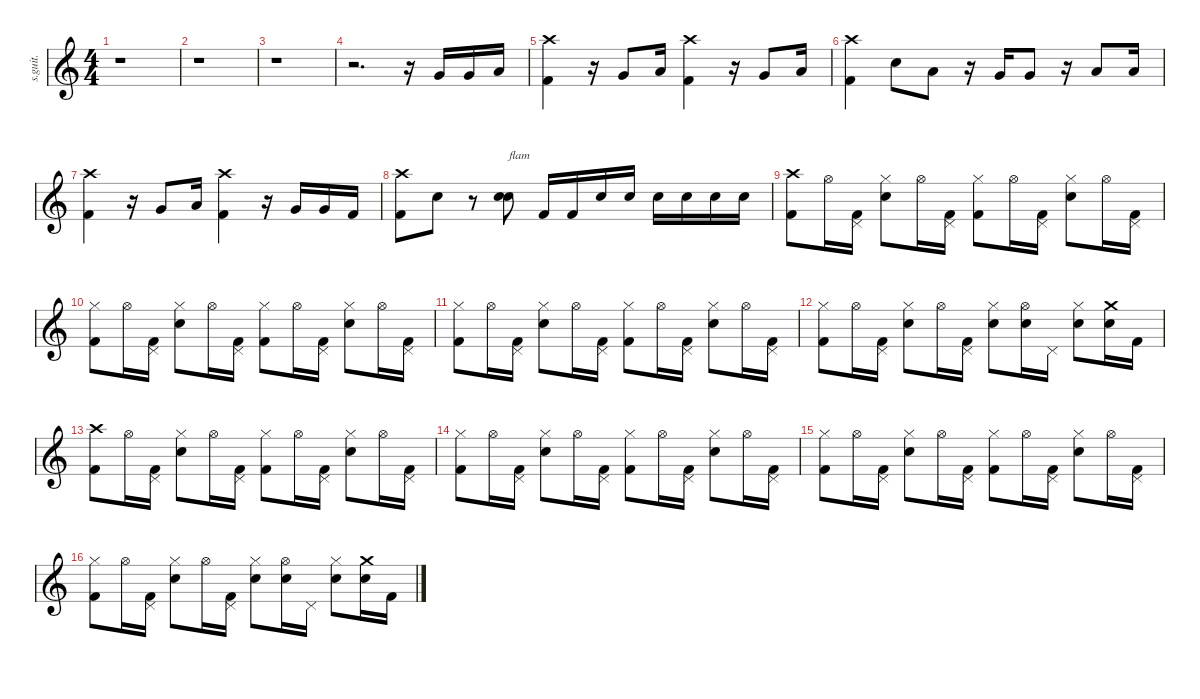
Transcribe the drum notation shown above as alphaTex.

\defaultSystemsLayout 4
\hideDynamics
\bracketExtendMode nobrackets
\track ("Bob Burns (Drums)" "s.guit.") {instrument percussion}
\staff {score}
\articulation defaults
\ts (4 4)
\beaming (8 2 2 2 2)
\tempo (60 hide)
\clef g2
\ks c
r.1{dy f} |
r.1 |
r.1 |
r.2{d} r.16 "Very Low Tom (hit)".16{lyrics (0 "") lyrics (1 "") lyrics (2 "") lyrics (3 "") lyrics (4 "")} "Very Low Tom (hit)".16{lyrics (0 "") lyrics (1 "") lyrics (2 "") lyrics (3 "") lyrics (4 "")} "Low Tom (hit)".16{lyrics (0 "") lyrics (1 "") lyrics (2 "") lyrics (3 "") lyrics (4 "")} |
("Crash high (hit)" "Kick (hit) 2").4{lyrics (0 "") lyrics (1 "") lyrics (2 "") lyrics (3 "") lyrics (4 "")} r.16 "Very Low Tom (hit)".8{lyrics (0 "") lyrics (1 "") lyrics (2 "") lyrics (3 "") lyrics (4 "")} "Low Tom (hit)".16{lyrics (0 "") lyrics (1 "") lyrics (2 "") lyrics (3 "") lyrics (4 "")} ("Crash high (hit)" "Kick (hit) 2").4{lyrics (0 "") lyrics (1 "") lyrics (2 "") lyrics (3 "") lyrics (4 "")} r.16 "Very Low Tom (hit)".8{lyrics (0 "") lyrics (1 "") lyrics (2 "") lyrics (3 "") lyrics (4 "")} "Low Tom (hit)".16{lyrics (0 "") lyrics (1 "") lyrics (2 "") lyrics (3 "") lyrics (4 "")} |
("Crash high (hit)" "Kick (hit) 2").4{lyrics (0 "") lyrics (1 "") lyrics (2 "") lyrics (3 "") lyrics (4 "")} "Electric Snare (hit)".8{lyrics (0 "") lyrics (1 "") lyrics (2 "") lyrics (3 "") lyrics (4 "")} "Low Tom (hit)".8{lyrics (0 "") lyrics (1 "") lyrics (2 "") lyrics (3 "") lyrics (4 "")} r.16 "Very Low Tom (hit)".16{lyrics (0 "") lyrics (1 "") lyrics (2 "") lyrics (3 "") lyrics (4 "")} "Very Low Tom (hit)".8{lyrics (0 "") lyrics (1 "") lyrics (2 "") lyrics (3 "") lyrics (4 "")} r.16 "Low Tom (hit)".8{lyrics (0 "") lyrics (1 "") lyrics (2 "") lyrics (3 "") lyrics (4 "")} "Low Tom (hit)".16{lyrics (0 "") lyrics (1 "") lyrics (2 "") lyrics (3 "") lyrics (4 "")} |
("Crash high (hit)" "Kick (hit) 2").4{lyrics (0 "") lyrics (1 "") lyrics (2 "") lyrics (3 "") lyrics (4 "")} r.16 "Very Low Tom (hit)".8{lyrics (0 "") lyrics (1 "") lyrics (2 "") lyrics (3 "") lyrics (4 "")} "Low Tom (hit)".16{lyrics (0 "") lyrics (1 "") lyrics (2 "") lyrics (3 "") lyrics (4 "")} ("Crash high (hit)" "Kick (hit) 2").4{lyrics (0 "") lyrics (1 "") lyrics (2 "") lyrics (3 "") lyrics (4 "")} r.16 "Very Low Tom (hit)".16{lyrics (0 "") lyrics (1 "") lyrics (2 "") lyrics (3 "") lyrics (4 "")} "Very Low Tom (hit)".16{lyrics (0 "") lyrics (1 "") lyrics (2 "") lyrics (3 "") lyrics (4 "")} "Kick (hit) 2".16{lyrics (0 "") lyrics (1 "") lyrics (2 "") lyrics (3 "") lyrics (4 "")} |
("Crash high (hit)" "Kick (hit) 2").8{lyrics (0 "") lyrics (1 "") lyrics (2 "") lyrics (3 "") lyrics (4 "")} "Electric Snare (hit)".8{lyrics (0 "") lyrics (1 "") lyrics (2 "") lyrics (3 "") lyrics (4 "")} r.8 ("Electric Snare (hit)" "Electric Snare (hit)").8{bd 30 txt "flam" lyrics (0 "") lyrics (1 "") lyrics (2 "") lyrics (3 "") lyrics (4 "")} "Kick (hit) 2".16{lyrics (0 "") lyrics (1 "") lyrics (2 "") lyrics (3 "") lyrics (4 "")} "Kick (hit) 2".16{lyrics (0 "") lyrics (1 "") lyrics (2 "") lyrics (3 "") lyrics (4 "")} "Electric Snare (hit)".16{lyrics (0 "") lyrics (1 "") lyrics (2 "") lyrics (3 "") lyrics (4 "")} "Electric Snare (hit)".16{lyrics (0 "") lyrics (1 "") lyrics (2 "") lyrics (3 "") lyrics (4 "")} "Electric Snare (hit)".16{lyrics (0 "") lyrics (1 "") lyrics (2 "") lyrics (3 "") lyrics (4 "")} "Electric Snare (hit)".16{lyrics (0 "") lyrics (1 "") lyrics (2 "") lyrics (3 "") lyrics (4 "")} "Electric Snare (hit)".16{lyrics (0 "") lyrics (1 "") lyrics (2 "") lyrics (3 "") lyrics (4 "")} "Electric Snare (hit)".16{lyrics (0 "") lyrics (1 "") lyrics (2 "") lyrics (3 "") lyrics (4 "")} |
("Crash high (hit)" "Kick (hit) 2").8{lyrics (0 "") lyrics (1 "") lyrics (2 "") lyrics (3 "") lyrics (4 "")} "Hi-Hat (open)".16{lyrics (0 "") lyrics (1 "") lyrics (2 "") lyrics (3 "") lyrics (4 "")} ("Pedal Hi-Hat (hit)" "Kick (hit) 2").16{lyrics (0 "") lyrics (1 "") lyrics (2 "") lyrics (3 "") lyrics (4 "")} ("Hi-Hat (closed)" "Electric Snare (hit)").8{lyrics (0 "") lyrics (1 "") lyrics (2 "") lyrics (3 "") lyrics (4 "")} "Hi-Hat (open)".16{lyrics (0 "") lyrics (1 "") lyrics (2 "") lyrics (3 "") lyrics (4 "")} ("Pedal Hi-Hat (hit)" "Kick (hit) 2").16{lyrics (0 "") lyrics (1 "") lyrics (2 "") lyrics (3 "") lyrics (4 "")} ("Hi-Hat (closed)" "Kick (hit) 2").8{lyrics (0 "") lyrics (1 "") lyrics (2 "") lyrics (3 "") lyrics (4 "")} "Hi-Hat (open)".16{lyrics (0 "") lyrics (1 "") lyrics (2 "") lyrics (3 "") lyrics (4 "")} ("Pedal Hi-Hat (hit)" "Kick (hit) 2").16{lyrics (0 "") lyrics (1 "") lyrics (2 "") lyrics (3 "") lyrics (4 "")} ("Hi-Hat (closed)" "Electric Snare (hit)").8{lyrics (0 "") lyrics (1 "") lyrics (2 "") lyrics (3 "") lyrics (4 "")} "Hi-Hat (open)".16{lyrics (0 "") lyrics (1 "") lyrics (2 "") lyrics (3 "") lyrics (4 "")} ("Pedal Hi-Hat (hit)" "Kick (hit) 2").16{lyrics (0 "") lyrics (1 "") lyrics (2 "") lyrics (3 "") lyrics (4 "")} |
("Hi-Hat (closed)" "Kick (hit) 2").8{lyrics (0 "") lyrics (1 "") lyrics (2 "") lyrics (3 "") lyrics (4 "")} "Hi-Hat (open)".16{lyrics (0 "") lyrics (1 "") lyrics (2 "") lyrics (3 "") lyrics (4 "")} ("Pedal Hi-Hat (hit)" "Kick (hit) 2").16{lyrics (0 "") lyrics (1 "") lyrics (2 "") lyrics (3 "") lyrics (4 "")} ("Hi-Hat (closed)" "Electric Snare (hit)").8{lyrics (0 "") lyrics (1 "") lyrics (2 "") lyrics (3 "") lyrics (4 "")} "Hi-Hat (open)".16{lyrics (0 "") lyrics (1 "") lyrics (2 "") lyrics (3 "") lyrics (4 "")} ("Pedal Hi-Hat (hit)" "Kick (hit) 2").16{lyrics (0 "") lyrics (1 "") lyrics (2 "") lyrics (3 "") lyrics (4 "")} ("Hi-Hat (closed)" "Kick (hit) 2").8{lyrics (0 "") lyrics (1 "") lyrics (2 "") lyrics (3 "") lyrics (4 "")} "Hi-Hat (open)".16{lyrics (0 "") lyrics (1 "") lyrics (2 "") lyrics (3 "") lyrics (4 "")} ("Pedal Hi-Hat (hit)" "Kick (hit) 2").16{lyrics (0 "") lyrics (1 "") lyrics (2 "") lyrics (3 "") lyrics (4 "")} ("Hi-Hat (closed)" "Electric Snare (hit)").8{lyrics (0 "") lyrics (1 "") lyrics (2 "") lyrics (3 "") lyrics (4 "")} "Hi-Hat (open)".16{lyrics (0 "") lyrics (1 "") lyrics (2 "") lyrics (3 "") lyrics (4 "")} ("Pedal Hi-Hat (hit)" "Kick (hit) 2").16{lyrics (0 "") lyrics (1 "") lyrics (2 "") lyrics (3 "") lyrics (4 "")} |
("Hi-Hat (closed)" "Kick (hit) 2").8{lyrics (0 "") lyrics (1 "") lyrics (2 "") lyrics (3 "") lyrics (4 "")} "Hi-Hat (open)".16{lyrics (0 "") lyrics (1 "") lyrics (2 "") lyrics (3 "") lyrics (4 "")} ("Pedal Hi-Hat (hit)" "Kick (hit) 2").16{lyrics (0 "") lyrics (1 "") lyrics (2 "") lyrics (3 "") lyrics (4 "")} ("Hi-Hat (closed)" "Electric Snare (hit)").8{lyrics (0 "") lyrics (1 "") lyrics (2 "") lyrics (3 "") lyrics (4 "")} "Hi-Hat (open)".16{lyrics (0 "") lyrics (1 "") lyrics (2 "") lyrics (3 "") lyrics (4 "")} ("Pedal Hi-Hat (hit)" "Kick (hit) 2").16{lyrics (0 "") lyrics (1 "") lyrics (2 "") lyrics (3 "") lyrics (4 "")} ("Hi-Hat (closed)" "Kick (hit) 2").8{lyrics (0 "") lyrics (1 "") lyrics (2 "") lyrics (3 "") lyrics (4 "")} "Hi-Hat (open)".16{lyrics (0 "") lyrics (1 "") lyrics (2 "") lyrics (3 "") lyrics (4 "")} ("Pedal Hi-Hat (hit)" "Kick (hit) 2").16{lyrics (0 "") lyrics (1 "") lyrics (2 "") lyrics (3 "") lyrics (4 "")} ("Hi-Hat (closed)" "Electric Snare (hit)").8{lyrics (0 "") lyrics (1 "") lyrics (2 "") lyrics (3 "") lyrics (4 "")} "Hi-Hat (open)".16{lyrics (0 "") lyrics (1 "") lyrics (2 "") lyrics (3 "") lyrics (4 "")} ("Pedal Hi-Hat (hit)" "Kick (hit) 2").16{lyrics (0 "") lyrics (1 "") lyrics (2 "") lyrics (3 "") lyrics (4 "")} |
("Hi-Hat (closed)" "Kick (hit) 2").8{lyrics (0 "") lyrics (1 "") lyrics (2 "") lyrics (3 "") lyrics (4 "")} "Hi-Hat (open)".16{lyrics (0 "") lyrics (1 "") lyrics (2 "") lyrics (3 "") lyrics (4 "")} ("Pedal Hi-Hat (hit)" "Kick (hit) 2").16{lyrics (0 "") lyrics (1 "") lyrics (2 "") lyrics (3 "") lyrics (4 "")} ("Hi-Hat (closed)" "Electric Snare (hit)").8{lyrics (0 "") lyrics (1 "") lyrics (2 "") lyrics (3 "") lyrics (4 "")} "Hi-Hat (open)".16{lyrics (0 "") lyrics (1 "") lyrics (2 "") lyrics (3 "") lyrics (4 "")} ("Pedal Hi-Hat (hit)" "Kick (hit) 2").16{lyrics (0 "") lyrics (1 "") lyrics (2 "") lyrics (3 "") lyrics (4 "")} ("Hi-Hat (closed)" "Electric Snare (hit)").8{lyrics (0 "") lyrics (1 "") lyrics (2 "") lyrics (3 "") lyrics (4 "")} ("Hi-Hat (open)" "Electric Snare (hit)").16{lyrics (0 "") lyrics (1 "") lyrics (2 "") lyrics (3 "") lyrics (4 "")} "Pedal Hi-Hat (hit)".16{lyrics (0 "") lyrics (1 "") lyrics (2 "") lyrics (3 "") lyrics (4 "")} ("Hi-Hat (closed)" "Electric Snare (hit)").8{lyrics (0 "") lyrics (1 "") lyrics (2 "") lyrics (3 "") lyrics (4 "")} ("Crash medium (hit)" "Electric Snare (hit)").16{lyrics (0 "") lyrics (1 "") lyrics (2 "") lyrics (3 "") lyrics (4 "")} "Kick (hit) 2".16{lyrics (0 "") lyrics (1 "") lyrics (2 "") lyrics (3 "") lyrics (4 "")} |
("Crash high (hit)" "Kick (hit) 2").8{lyrics (0 "") lyrics (1 "") lyrics (2 "") lyrics (3 "") lyrics (4 "")} "Hi-Hat (open)".16{lyrics (0 "") lyrics (1 "") lyrics (2 "") lyrics (3 "") lyrics (4 "")} ("Pedal Hi-Hat (hit)" "Kick (hit) 2").16{lyrics (0 "") lyrics (1 "") lyrics (2 "") lyrics (3 "") lyrics (4 "")} ("Hi-Hat (closed)" "Electric Snare (hit)").8{lyrics (0 "") lyrics (1 "") lyrics (2 "") lyrics (3 "") lyrics (4 "")} "Hi-Hat (open)".16{lyrics (0 "") lyrics (1 "") lyrics (2 "") lyrics (3 "") lyrics (4 "")} ("Pedal Hi-Hat (hit)" "Kick (hit) 2").16{lyrics (0 "") lyrics (1 "") lyrics (2 "") lyrics (3 "") lyrics (4 "")} ("Hi-Hat (closed)" "Kick (hit) 2").8{lyrics (0 "") lyrics (1 "") lyrics (2 "") lyrics (3 "") lyrics (4 "")} "Hi-Hat (open)".16{lyrics (0 "") lyrics (1 "") lyrics (2 "") lyrics (3 "") lyrics (4 "")} ("Pedal Hi-Hat (hit)" "Kick (hit) 2").16{lyrics (0 "") lyrics (1 "") lyrics (2 "") lyrics (3 "") lyrics (4 "")} ("Hi-Hat (closed)" "Electric Snare (hit)").8{lyrics (0 "") lyrics (1 "") lyrics (2 "") lyrics (3 "") lyrics (4 "")} "Hi-Hat (open)".16{lyrics (0 "") lyrics (1 "") lyrics (2 "") lyrics (3 "") lyrics (4 "")} ("Pedal Hi-Hat (hit)" "Kick (hit) 2").16{lyrics (0 "") lyrics (1 "") lyrics (2 "") lyrics (3 "") lyrics (4 "")} |
("Hi-Hat (closed)" "Kick (hit) 2").8{lyrics (0 "") lyrics (1 "") lyrics (2 "") lyrics (3 "") lyrics (4 "")} "Hi-Hat (open)".16{lyrics (0 "") lyrics (1 "") lyrics (2 "") lyrics (3 "") lyrics (4 "")} ("Pedal Hi-Hat (hit)" "Kick (hit) 2").16{lyrics (0 "") lyrics (1 "") lyrics (2 "") lyrics (3 "") lyrics (4 "")} ("Hi-Hat (closed)" "Electric Snare (hit)").8{lyrics (0 "") lyrics (1 "") lyrics (2 "") lyrics (3 "") lyrics (4 "")} "Hi-Hat (open)".16{lyrics (0 "") lyrics (1 "") lyrics (2 "") lyrics (3 "") lyrics (4 "")} ("Pedal Hi-Hat (hit)" "Kick (hit) 2").16{lyrics (0 "") lyrics (1 "") lyrics (2 "") lyrics (3 "") lyrics (4 "")} ("Hi-Hat (closed)" "Kick (hit) 2").8{lyrics (0 "") lyrics (1 "") lyrics (2 "") lyrics (3 "") lyrics (4 "")} "Hi-Hat (open)".16{lyrics (0 "") lyrics (1 "") lyrics (2 "") lyrics (3 "") lyrics (4 "")} ("Pedal Hi-Hat (hit)" "Kick (hit) 2").16{lyrics (0 "") lyrics (1 "") lyrics (2 "") lyrics (3 "") lyrics (4 "")} ("Hi-Hat (closed)" "Electric Snare (hit)").8{lyrics (0 "") lyrics (1 "") lyrics (2 "") lyrics (3 "") lyrics (4 "")} "Hi-Hat (open)".16{lyrics (0 "") lyrics (1 "") lyrics (2 "") lyrics (3 "") lyrics (4 "")} ("Pedal Hi-Hat (hit)" "Kick (hit) 2").16{lyrics (0 "") lyrics (1 "") lyrics (2 "") lyrics (3 "") lyrics (4 "")} |
("Hi-Hat (closed)" "Kick (hit) 2").8{lyrics (0 "") lyrics (1 "") lyrics (2 "") lyrics (3 "") lyrics (4 "")} "Hi-Hat (open)".16{lyrics (0 "") lyrics (1 "") lyrics (2 "") lyrics (3 "") lyrics (4 "")} ("Pedal Hi-Hat (hit)" "Kick (hit) 2").16{lyrics (0 "") lyrics (1 "") lyrics (2 "") lyrics (3 "") lyrics (4 "")} ("Hi-Hat (closed)" "Electric Snare (hit)").8{lyrics (0 "") lyrics (1 "") lyrics (2 "") lyrics (3 "") lyrics (4 "")} "Hi-Hat (open)".16{lyrics (0 "") lyrics (1 "") lyrics (2 "") lyrics (3 "") lyrics (4 "")} ("Pedal Hi-Hat (hit)" "Kick (hit) 2").16{lyrics (0 "") lyrics (1 "") lyrics (2 "") lyrics (3 "") lyrics (4 "")} ("Hi-Hat (closed)" "Kick (hit) 2").8{lyrics (0 "") lyrics (1 "") lyrics (2 "") lyrics (3 "") lyrics (4 "")} "Hi-Hat (open)".16{lyrics (0 "") lyrics (1 "") lyrics (2 "") lyrics (3 "") lyrics (4 "")} ("Pedal Hi-Hat (hit)" "Kick (hit) 2").16{lyrics (0 "") lyrics (1 "") lyrics (2 "") lyrics (3 "") lyrics (4 "")} ("Hi-Hat (closed)" "Electric Snare (hit)").8{lyrics (0 "") lyrics (1 "") lyrics (2 "") lyrics (3 "") lyrics (4 "")} "Hi-Hat (open)".16{lyrics (0 "") lyrics (1 "") lyrics (2 "") lyrics (3 "") lyrics (4 "")} ("Pedal Hi-Hat (hit)" "Kick (hit) 2").16{lyrics (0 "") lyrics (1 "") lyrics (2 "") lyrics (3 "") lyrics (4 "")} |
("Hi-Hat (closed)" "Kick (hit) 2").8{lyrics (0 "") lyrics (1 "") lyrics (2 "") lyrics (3 "") lyrics (4 "")} "Hi-Hat (open)".16{lyrics (0 "") lyrics (1 "") lyrics (2 "") lyrics (3 "") lyrics (4 "")} ("Pedal Hi-Hat (hit)" "Kick (hit) 2").16{lyrics (0 "") lyrics (1 "") lyrics (2 "") lyrics (3 "") lyrics (4 "")} ("Hi-Hat (closed)" "Electric Snare (hit)").8{lyrics (0 "") lyrics (1 "") lyrics (2 "") lyrics (3 "") lyrics (4 "")} "Hi-Hat (open)".16{lyrics (0 "") lyrics (1 "") lyrics (2 "") lyrics (3 "") lyrics (4 "")} ("Pedal Hi-Hat (hit)" "Kick (hit) 2").16{lyrics (0 "") lyrics (1 "") lyrics (2 "") lyrics (3 "") lyrics (4 "")} ("Hi-Hat (closed)" "Electric Snare (hit)").8{lyrics (0 "") lyrics (1 "") lyrics (2 "") lyrics (3 "") lyrics (4 "")} ("Hi-Hat (open)" "Electric Snare (hit)").16{lyrics (0 "") lyrics (1 "") lyrics (2 "") lyrics (3 "") lyrics (4 "")} "Pedal Hi-Hat (hit)".16{lyrics (0 "") lyrics (1 "") lyrics (2 "") lyrics (3 "") lyrics (4 "")} ("Hi-Hat (closed)" "Electric Snare (hit)").8{lyrics (0 "") lyrics (1 "") lyrics (2 "") lyrics (3 "") lyrics (4 "")} ("Crash medium (hit)" "Electric Snare (hit)").16{lyrics (0 "") lyrics (1 "") lyrics (2 "") lyrics (3 "") lyrics (4 "")} "Kick (hit) 2".16{lyrics (0 "") lyrics (1 "") lyrics (2 "") lyrics (3 "") lyrics (4 "")}
